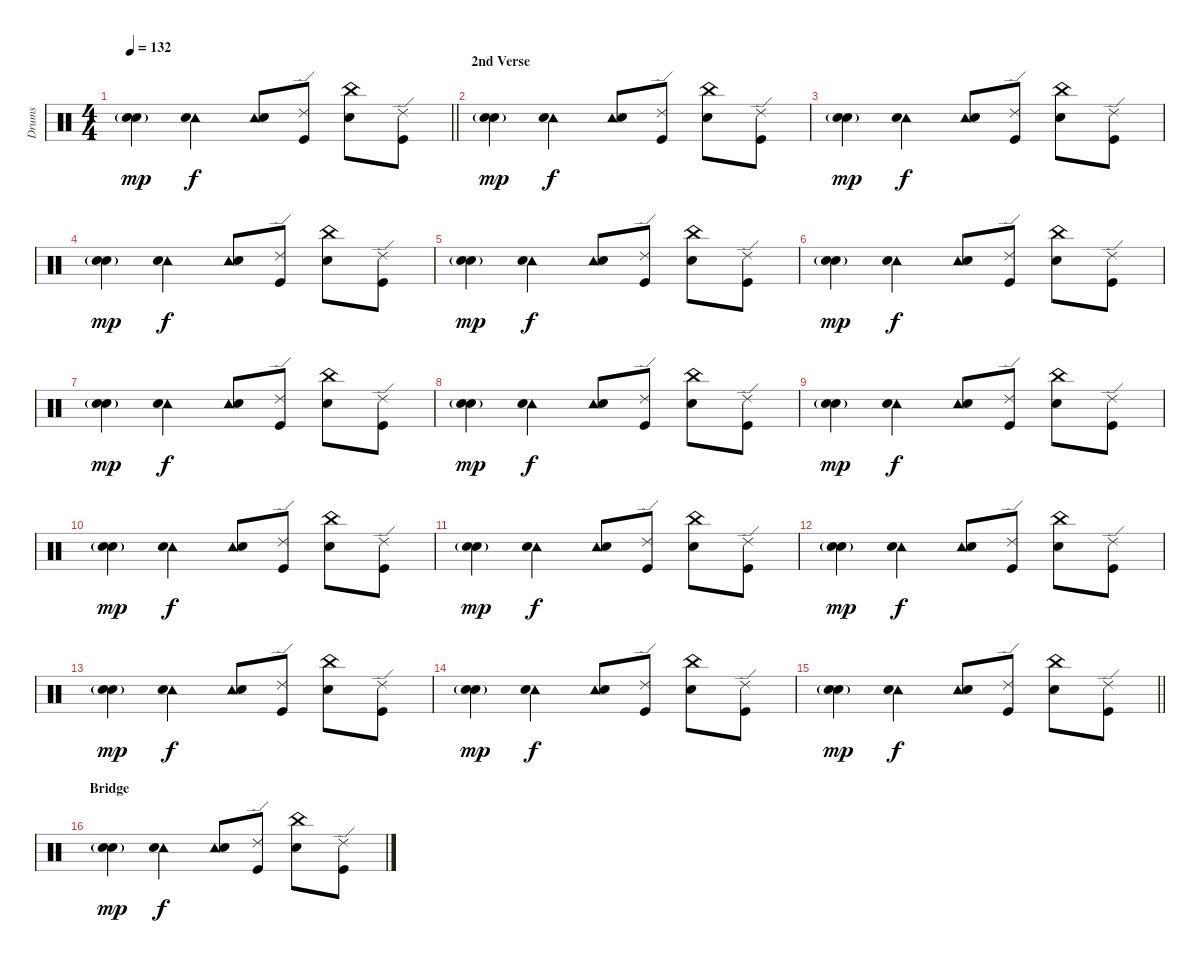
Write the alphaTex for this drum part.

\track ("Drums" "Drums") {instrument percussion}
\staff {score}
\articulation defaults
\ts (4 4)
\tempo 132
\clef neutral
\barLineRight lightlight
\ks c
("Snare (hit) 2" "Electric Snare (hit)"{g}).4{dy mp} ("Tambourine (hit)" "Snare (hit) 2").4{dy f} ("Tambourine (hit)" "Snare (hit) 2").8 ("Ride (edge) 2" "Kick (hit)").8 ("China (hit)" "Snare (hit) 2").8 ("Ride (edge) 2" "Kick (hit)").8 |
\section ("" "2nd Verse")
("Snare (hit) 2" "Electric Snare (hit)"{g}).4{dy mp} ("Tambourine (hit)" "Snare (hit) 2").4{dy f} ("Tambourine (hit)" "Snare (hit) 2").8 ("Ride (edge) 2" "Kick (hit)").8 ("China (hit)" "Snare (hit) 2").8 ("Ride (edge) 2" "Kick (hit)").8 |
("Snare (hit) 2" "Electric Snare (hit)"{g}).4{dy mp} ("Tambourine (hit)" "Snare (hit) 2").4{dy f} ("Tambourine (hit)" "Snare (hit) 2").8 ("Ride (edge) 2" "Kick (hit)").8 ("China (hit)" "Snare (hit) 2").8 ("Ride (edge) 2" "Kick (hit)").8 |
("Snare (hit) 2" "Electric Snare (hit)"{g}).4{dy mp} ("Tambourine (hit)" "Snare (hit) 2").4{dy f} ("Tambourine (hit)" "Snare (hit) 2").8 ("Ride (edge) 2" "Kick (hit)").8 ("China (hit)" "Snare (hit) 2").8 ("Ride (edge) 2" "Kick (hit)").8 |
("Snare (hit) 2" "Electric Snare (hit)"{g}).4{dy mp} ("Tambourine (hit)" "Snare (hit) 2").4{dy f} ("Tambourine (hit)" "Snare (hit) 2").8 ("Ride (edge) 2" "Kick (hit)").8 ("China (hit)" "Snare (hit) 2").8 ("Ride (edge) 2" "Kick (hit)").8 |
("Snare (hit) 2" "Electric Snare (hit)"{g}).4{dy mp} ("Tambourine (hit)" "Snare (hit) 2").4{dy f} ("Tambourine (hit)" "Snare (hit) 2").8 ("Ride (edge) 2" "Kick (hit)").8 ("China (hit)" "Snare (hit) 2").8 ("Ride (edge) 2" "Kick (hit)").8 |
("Snare (hit) 2" "Electric Snare (hit)"{g}).4{dy mp} ("Tambourine (hit)" "Snare (hit) 2").4{dy f} ("Tambourine (hit)" "Snare (hit) 2").8 ("Ride (edge) 2" "Kick (hit)").8 ("China (hit)" "Snare (hit) 2").8 ("Ride (edge) 2" "Kick (hit)").8 |
("Snare (hit) 2" "Electric Snare (hit)"{g}).4{dy mp} ("Tambourine (hit)" "Snare (hit) 2").4{dy f} ("Tambourine (hit)" "Snare (hit) 2").8 ("Ride (edge) 2" "Kick (hit)").8 ("China (hit)" "Snare (hit) 2").8 ("Ride (edge) 2" "Kick (hit)").8 |
("Snare (hit) 2" "Electric Snare (hit)"{g}).4{dy mp} ("Tambourine (hit)" "Snare (hit) 2").4{dy f} ("Tambourine (hit)" "Snare (hit) 2").8 ("Ride (edge) 2" "Kick (hit)").8 ("China (hit)" "Snare (hit) 2").8 ("Ride (edge) 2" "Kick (hit)").8 |
("Snare (hit) 2" "Electric Snare (hit)"{g}).4{dy mp} ("Tambourine (hit)" "Snare (hit) 2").4{dy f} ("Tambourine (hit)" "Snare (hit) 2").8 ("Ride (edge) 2" "Kick (hit)").8 ("China (hit)" "Snare (hit) 2").8 ("Ride (edge) 2" "Kick (hit)").8 |
("Snare (hit) 2" "Electric Snare (hit)"{g}).4{dy mp} ("Tambourine (hit)" "Snare (hit) 2").4{dy f} ("Tambourine (hit)" "Snare (hit) 2").8 ("Ride (edge) 2" "Kick (hit)").8 ("China (hit)" "Snare (hit) 2").8 ("Ride (edge) 2" "Kick (hit)").8 |
("Snare (hit) 2" "Electric Snare (hit)"{g}).4{dy mp} ("Tambourine (hit)" "Snare (hit) 2").4{dy f} ("Tambourine (hit)" "Snare (hit) 2").8 ("Ride (edge) 2" "Kick (hit)").8 ("China (hit)" "Snare (hit) 2").8 ("Ride (edge) 2" "Kick (hit)").8 |
("Snare (hit) 2" "Electric Snare (hit)"{g}).4{dy mp} ("Tambourine (hit)" "Snare (hit) 2").4{dy f} ("Tambourine (hit)" "Snare (hit) 2").8 ("Ride (edge) 2" "Kick (hit)").8 ("China (hit)" "Snare (hit) 2").8 ("Ride (edge) 2" "Kick (hit)").8 |
("Snare (hit) 2" "Electric Snare (hit)"{g}).4{dy mp} ("Tambourine (hit)" "Snare (hit) 2").4{dy f} ("Tambourine (hit)" "Snare (hit) 2").8 ("Ride (edge) 2" "Kick (hit)").8 ("China (hit)" "Snare (hit) 2").8 ("Ride (edge) 2" "Kick (hit)").8 |
\barLineRight lightlight
("Snare (hit) 2" "Electric Snare (hit)"{g}).4{dy mp} ("Tambourine (hit)" "Snare (hit) 2").4{dy f} ("Tambourine (hit)" "Snare (hit) 2").8 ("Ride (edge) 2" "Kick (hit)").8 ("China (hit)" "Snare (hit) 2").8 ("Ride (edge) 2" "Kick (hit)").8 |
\section ("" "Bridge")
("Snare (hit) 2" "Electric Snare (hit)"{g}).4{dy mp} ("Tambourine (hit)" "Snare (hit) 2").4{dy f} ("Tambourine (hit)" "Snare (hit) 2").8 ("Ride (edge) 2" "Kick (hit)").8 ("China (hit)" "Snare (hit) 2").8 ("Ride (edge) 2" "Kick (hit)").8
